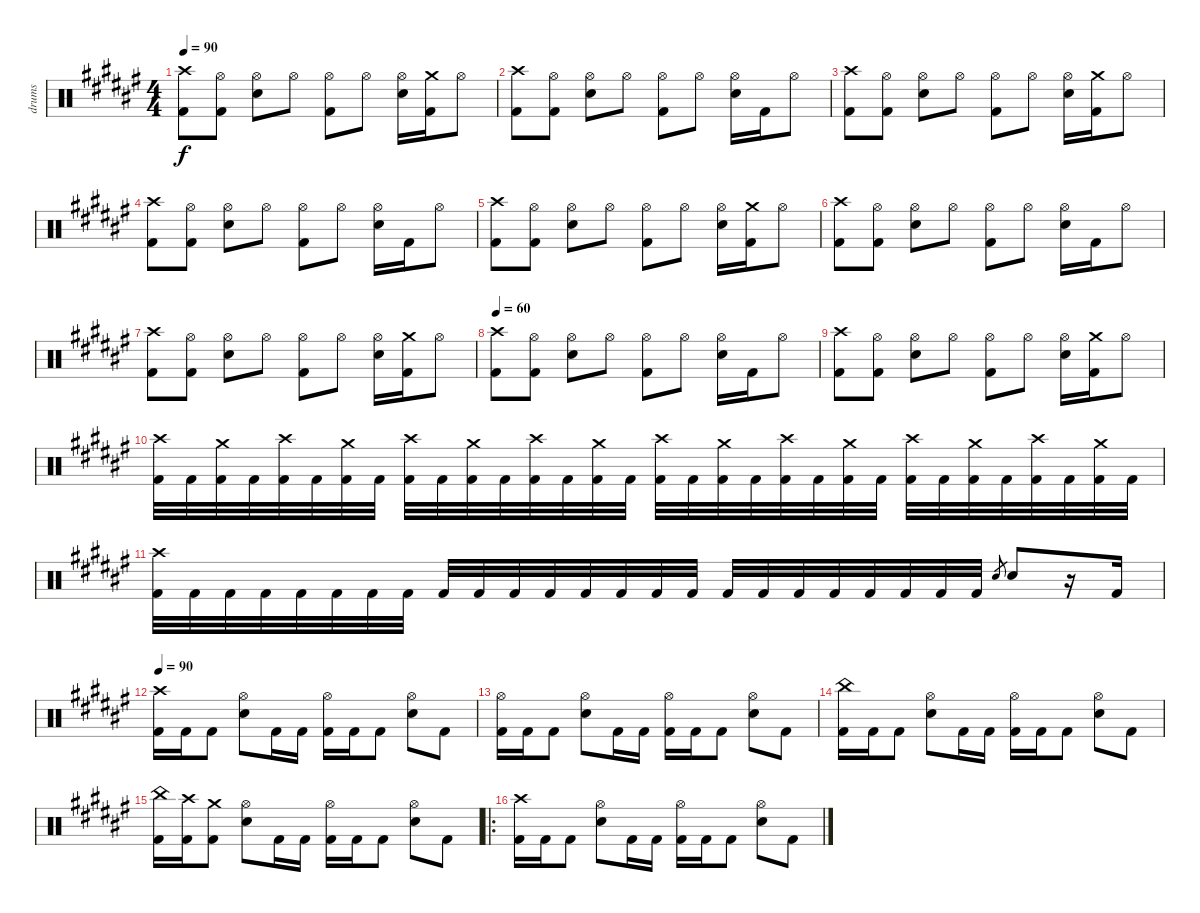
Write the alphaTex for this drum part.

\track ("drums" "drums") {instrument percussion}
\staff {score}
\articulation defaults
\ts (4 4)
\tempo 90
\clef neutral
\ks d#minor
("Crash high (hit)" "Kick (hit) 2").8{dy f} ("Hi-Hat (open)" "Kick (hit) 2").8 ("Hi-Hat (open)" "Electric Snare (hit)").8 "Hi-Hat (open)".8 ("Hi-Hat (open)" "Kick (hit) 2").8 "Hi-Hat (open)".8 ("Hi-Hat (open)" "Electric Snare (hit)").16 ("Crash medium (hit)" "Kick (hit) 2").16 "Hi-Hat (open)".8 |
("Crash high (hit)" "Kick (hit) 2").8 ("Hi-Hat (open)" "Kick (hit) 2").8 ("Hi-Hat (open)" "Electric Snare (hit)").8 "Hi-Hat (open)".8 ("Hi-Hat (open)" "Kick (hit) 2").8 "Hi-Hat (open)".8 ("Hi-Hat (open)" "Electric Snare (hit)").16 "Kick (hit) 2".16 "Hi-Hat (open)".8 |
("Crash high (hit)" "Kick (hit) 2").8 ("Hi-Hat (open)" "Kick (hit) 2").8 ("Hi-Hat (open)" "Electric Snare (hit)").8 "Hi-Hat (open)".8 ("Hi-Hat (open)" "Kick (hit) 2").8 "Hi-Hat (open)".8 ("Hi-Hat (open)" "Electric Snare (hit)").16 ("Crash medium (hit)" "Kick (hit) 2").16 "Hi-Hat (open)".8 |
("Crash high (hit)" "Kick (hit) 2").8 ("Hi-Hat (open)" "Kick (hit) 2").8 ("Hi-Hat (open)" "Electric Snare (hit)").8 "Hi-Hat (open)".8 ("Hi-Hat (open)" "Kick (hit) 2").8 "Hi-Hat (open)".8 ("Hi-Hat (open)" "Electric Snare (hit)").16 "Kick (hit) 2".16 "Hi-Hat (open)".8 |
("Crash high (hit)" "Kick (hit) 2").8 ("Hi-Hat (open)" "Kick (hit) 2").8 ("Hi-Hat (open)" "Electric Snare (hit)").8 "Hi-Hat (open)".8 ("Hi-Hat (open)" "Kick (hit) 2").8 "Hi-Hat (open)".8 ("Hi-Hat (open)" "Electric Snare (hit)").16 ("Crash medium (hit)" "Kick (hit) 2").16 "Hi-Hat (open)".8 |
("Crash high (hit)" "Kick (hit) 2").8 ("Hi-Hat (open)" "Kick (hit) 2").8 ("Hi-Hat (open)" "Electric Snare (hit)").8 "Hi-Hat (open)".8 ("Hi-Hat (open)" "Kick (hit) 2").8 "Hi-Hat (open)".8 ("Hi-Hat (open)" "Electric Snare (hit)").16 "Kick (hit) 2".16 "Hi-Hat (open)".8 |
("Crash high (hit)" "Kick (hit) 2").8 ("Hi-Hat (open)" "Kick (hit) 2").8 ("Hi-Hat (open)" "Electric Snare (hit)").8 "Hi-Hat (open)".8 ("Hi-Hat (open)" "Kick (hit) 2").8 "Hi-Hat (open)".8 ("Hi-Hat (open)" "Electric Snare (hit)").16 ("Crash medium (hit)" "Kick (hit) 2").16 "Hi-Hat (open)".8 |
\tempo 60
("Crash high (hit)" "Kick (hit) 2").8 ("Hi-Hat (open)" "Kick (hit) 2").8 ("Hi-Hat (open)" "Electric Snare (hit)").8 "Hi-Hat (open)".8 ("Hi-Hat (open)" "Kick (hit) 2").8 "Hi-Hat (open)".8 ("Hi-Hat (open)" "Electric Snare (hit)").16 "Kick (hit) 2".16 "Hi-Hat (open)".8 |
("Crash high (hit)" "Kick (hit) 2").8 ("Hi-Hat (open)" "Kick (hit) 2").8 ("Hi-Hat (open)" "Electric Snare (hit)").8 "Hi-Hat (open)".8 ("Hi-Hat (open)" "Kick (hit) 2").8 "Hi-Hat (open)".8 ("Hi-Hat (open)" "Electric Snare (hit)").16 ("Crash medium (hit)" "Kick (hit) 2").16 "Hi-Hat (open)".8 |
("Crash high (hit)" "Kick (hit) 2").32 "Kick (hit) 2".32 ("Crash medium (hit)" "Kick (hit) 2").32 "Kick (hit) 2".32 ("Crash high (hit)" "Kick (hit) 2").32 "Kick (hit) 2".32 ("Crash medium (hit)" "Kick (hit) 2").32 "Kick (hit) 2".32 ("Crash high (hit)" "Kick (hit) 2").32 "Kick (hit) 2".32 ("Crash medium (hit)" "Kick (hit) 2").32 "Kick (hit) 2".32 ("Crash high (hit)" "Kick (hit) 2").32 "Kick (hit) 2".32 ("Crash medium (hit)" "Kick (hit) 2").32 "Kick (hit) 2".32 ("Crash high (hit)" "Kick (hit) 2").32 "Kick (hit) 2".32 ("Crash medium (hit)" "Kick (hit) 2").32 "Kick (hit) 2".32 ("Crash high (hit)" "Kick (hit) 2").32 "Kick (hit) 2".32 ("Crash medium (hit)" "Kick (hit) 2").32 "Kick (hit) 2".32 ("Crash high (hit)" "Kick (hit) 2").32 "Kick (hit) 2".32 ("Crash medium (hit)" "Kick (hit) 2").32 "Kick (hit) 2".32 ("Crash high (hit)" "Kick (hit) 2").32 "Kick (hit) 2".32 ("Crash medium (hit)" "Kick (hit) 2").32 "Kick (hit) 2".32 |
("Crash high (hit)" "Kick (hit) 2").32 "Kick (hit) 2".32 "Kick (hit) 2".32 "Kick (hit) 2".32 "Kick (hit) 2".32 "Kick (hit) 2".32 "Kick (hit) 2".32 "Kick (hit) 2".32 "Kick (hit) 2".32 "Kick (hit) 2".32 "Kick (hit) 2".32 "Kick (hit) 2".32 "Kick (hit) 2".32 "Kick (hit) 2".32 "Kick (hit) 2".32 "Kick (hit) 2".32 "Kick (hit) 2".32 "Kick (hit) 2".32 "Kick (hit) 2".32 "Kick (hit) 2".32 "Kick (hit) 2".32 "Kick (hit) 2".32 "Kick (hit) 2".32 "Kick (hit) 2".32 "Electric Snare (hit)".8{gr} "Electric Snare (hit)".8 r.16 "Kick (hit) 2".16 |
\tempo 90
("Crash high (hit)" "Kick (hit) 2").16 "Kick (hit) 2".16 "Kick (hit) 2".8 ("Hi-Hat (open)" "Electric Snare (hit)").8 "Kick (hit) 2".16 "Kick (hit) 2".16 ("Hi-Hat (open)" "Kick (hit) 2").16 "Kick (hit) 2".16 "Kick (hit) 2".8 ("Hi-Hat (open)" "Electric Snare (hit)").8 "Kick (hit) 2".8 |
("Hi-Hat (open)" "Kick (hit) 2").16 "Kick (hit) 2".16 "Kick (hit) 2".8 ("Hi-Hat (open)" "Electric Snare (hit)").8 "Kick (hit) 2".16 "Kick (hit) 2".16 ("Hi-Hat (open)" "Kick (hit) 2").16 "Kick (hit) 2".16 "Kick (hit) 2".8 ("Hi-Hat (open)" "Electric Snare (hit)").8 "Kick (hit) 2".8 |
("China (hit)" "Kick (hit) 2").16 "Kick (hit) 2".16 "Kick (hit) 2".8 ("Hi-Hat (open)" "Electric Snare (hit)").8 "Kick (hit) 2".16 "Kick (hit) 2".16 ("Hi-Hat (open)" "Kick (hit) 2").16 "Kick (hit) 2".16 "Kick (hit) 2".8 ("Hi-Hat (open)" "Electric Snare (hit)").8 "Kick (hit) 2".8 |
("China (hit)" "Kick (hit) 2").16 ("Crash high (hit)" "Kick (hit) 2").16 ("Crash medium (hit)" "Kick (hit) 2").8 ("Hi-Hat (open)" "Electric Snare (hit)").8 "Kick (hit) 2".16 "Kick (hit) 2".16 ("Hi-Hat (open)" "Kick (hit) 2").16 "Kick (hit) 2".16 "Kick (hit) 2".8 ("Hi-Hat (open)" "Electric Snare (hit)").8 "Kick (hit) 2".8 |
\ro
("Crash high (hit)" "Kick (hit) 2").16 "Kick (hit) 2".16 "Kick (hit) 2".8 ("Hi-Hat (open)" "Electric Snare (hit)").8 "Kick (hit) 2".16 "Kick (hit) 2".16 ("Hi-Hat (open)" "Kick (hit) 2").16 "Kick (hit) 2".16 "Kick (hit) 2".8 ("Hi-Hat (open)" "Electric Snare (hit)").8 "Kick (hit) 2".8
